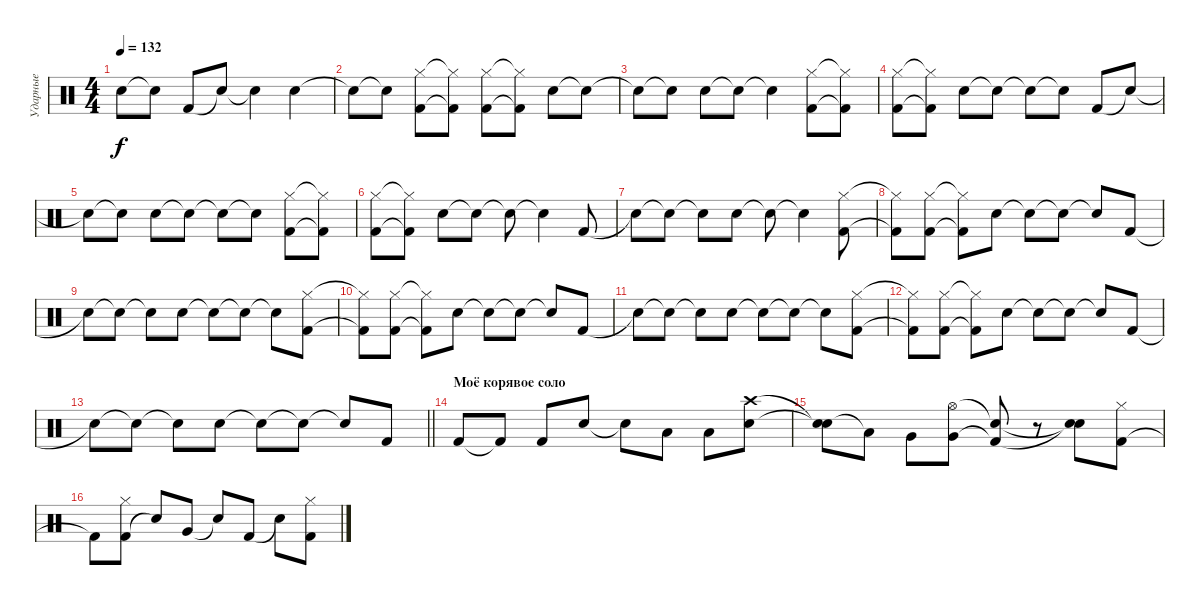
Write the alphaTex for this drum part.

\track ("Ударные" "Ударные") {instrument percussion}
\staff {score}
\articulation defaults
\ts (4 4)
\tempo 132
\clef neutral
\ks c "Snare (hit)"{t}.8{dy f} "Snare (hit)"{t}.8 "Kick (hit) 2".8 "Snare (hit)"{t}.8 "Snare (hit)"{t}.4 "Snare (hit) 2".4
|
"Snare (hit)"{t}.8 "Snare (hit)"{t}.8 ("Hi-Hat (closed)" "Kick (hit) 2").8 ("Hi-Hat (closed)"{t} "Kick (hit) 2"{t}).8 ("Hi-Hat (closed)" "Kick (hit) 2").8 ("Hi-Hat (closed)"{t} "Kick (hit) 2"{t}).8 "Snare (hit) 2".8 "Snare (hit)"{t}.8 |
"Snare (hit)"{t}.8 "Snare (hit)"{t}.8 "Snare (hit) 2".8 "Snare (hit)"{t}.8 "Snare (hit)"{t}.4 ("Hi-Hat (closed)" "Kick (hit) 2").8 ("Hi-Hat (closed)"{t} "Kick (hit) 2"{t}).8 |
("Hi-Hat (closed)" "Kick (hit) 2").8 ("Hi-Hat (closed)"{t} "Kick (hit) 2"{t}).8 "Snare (hit) 2".8 "Snare (hit)"{t}.8 "Snare (hit)"{t}.8 "Snare (hit)"{t}.8 "Kick (hit) 2".8 "Snare (hit)"{t}.8 |
"Snare (hit)"{t}.8 "Snare (hit)"{t}.8 "Snare (hit) 2".8 "Snare (hit)"{t}.8 "Snare (hit)"{t}.8 "Snare (hit)"{t}.8 ("Hi-Hat (closed)" "Kick (hit) 2").8 ("Hi-Hat (closed)"{t} "Kick (hit) 2"{t}).8 |
("Hi-Hat (closed)" "Kick (hit) 2").8 ("Hi-Hat (closed)"{t} "Kick (hit) 2"{t}).8 "Snare (hit) 2".8 "Snare (hit)"{t}.8 "Snare (hit)"{t}.8 "Snare (hit)"{t}.4 "Kick (hit) 2".8 |
"Snare (hit)"{t}.8 "Snare (hit)"{t}.8 "Snare (hit)"{t}.8 "Snare (hit) 2".8 "Snare (hit)"{t}.8 "Snare (hit)"{t}.4 ("Hi-Hat (closed)" "Kick (hit) 2").8 |
("Hi-Hat (closed)"{t} "Kick (hit) 2"{t}).8 ("Hi-Hat (closed)" "Kick (hit) 2").8 ("Hi-Hat (closed)"{t} "Kick (hit) 2"{t}).8 "Snare (hit) 2".8 "Snare (hit)"{t}.8 "Snare (hit)"{t}.8 "Snare (hit)"{t}.8 "Kick (hit) 2".8 |
"Snare (hit)"{t}.8 "Snare (hit)"{t}.8 "Snare (hit)"{t}.8 "Snare (hit) 2".8 "Snare (hit)"{t}.8 "Snare (hit)"{t}.8 "Snare (hit)"{t}.8 ("Hi-Hat (closed)" "Kick (hit) 2").8 |
("Hi-Hat (closed)"{t} "Kick (hit) 2"{t}).8 ("Hi-Hat (closed)" "Kick (hit) 2").8 ("Hi-Hat (closed)"{t} "Kick (hit) 2"{t}).8 "Snare (hit) 2".8 "Snare (hit)"{t}.8 "Snare (hit)"{t}.8 "Snare (hit)"{t}.8 "Kick (hit) 2".8 |
"Snare (hit)"{t}.8 "Snare (hit)"{t}.8 "Snare (hit)"{t}.8 "Snare (hit) 2".8 "Snare (hit)"{t}.8 "Snare (hit)"{t}.8 "Snare (hit)"{t}.8 ("Hi-Hat (closed)" "Kick (hit) 2").8 |
("Hi-Hat (closed)"{t} "Kick (hit) 2"{t}).8 ("Hi-Hat (closed)" "Kick (hit) 2").8 ("Hi-Hat (closed)"{t} "Kick (hit) 2"{t}).8 "Snare (hit) 2".8 "Snare (hit)"{t}.8 "Snare (hit)"{t}.8 "Snare (hit)"{t}.8 "Kick (hit) 2".8 |
\barLineRight lightlight "Snare (hit)"{t}.8 "Snare (hit)"{t}.8 "Snare (hit)"{t}.8 "Snare (hit) 2".8 "Snare (hit)"{t}.8 "Snare (hit)"{t}.8 "Snare (hit)"{t}.8 "Kick (hit) 2".8
|
\section ("" "Моё корявое соло")
"Kick (hit) 2".8 "Kick (hit) 2"{t}.8 "Kick (hit) 2".8 "Snare (hit) 2".8 "Snare (hit)"{t}.8 "Low Floor Tom (hit)".8 "Low Floor Tom (hit)".8 ("Snare (hit) 2" "Crash high (hit)").8 |
("Snare (hit)"{t} "Snare (hit)"{t}).8 "Low Floor Tom (hit)"{t}.8 "Very Low Tom (hit)".8 ("Very Low Tom (hit)" "Hi-Hat (open)").8 ("Kick (hit) 2"{t} "Snare (hit)"{t}).8 r.8 ("Snare (hit)"{t} "Snare (hit)"{t}).8 ("Kick (hit) 2" "Hi-Hat (closed)").8 |
"Kick (hit) 2"{t}.8 ("Kick (hit) 2" "Hi-Hat (closed)").8 "Snare (hit)"{t}.8 "Very Low Tom (hit)".8 "Snare (hit)"{t}.8 "Kick (hit) 2".8 "Snare (hit)"{t}.8 ("Kick (hit) 2" "Hi-Hat (closed)").8
